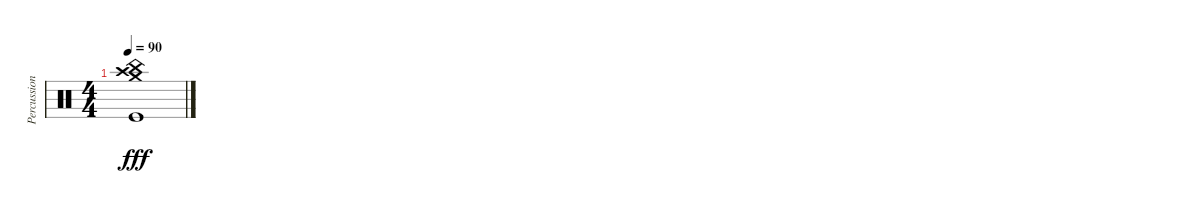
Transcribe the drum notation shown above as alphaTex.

\track ("Percussion" "Percussion") {instrument percussion}
\staff {score}
\articulation defaults
\ts (4 4)
\tempo 90
\clef neutral
\ks c
("Crash medium (hit)" "China (hit)" "Crash high (hit)" "Kick (hit)").1{dy fff}
